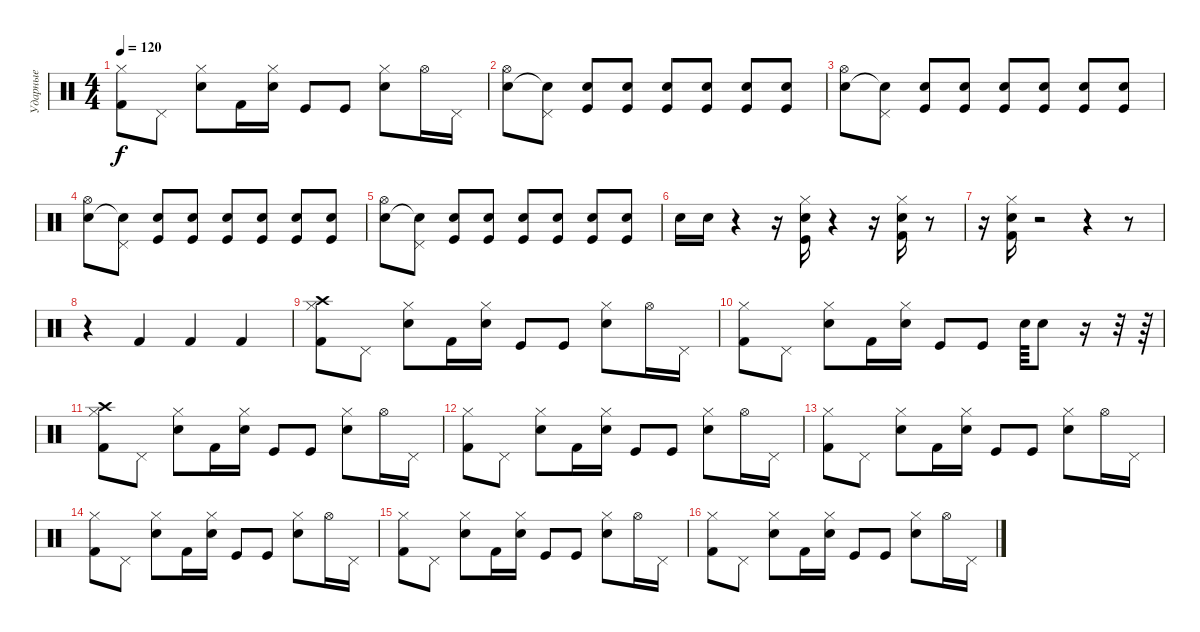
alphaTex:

\track ("Ударные" "Ударные") {instrument percussion}
\staff {score}
\articulation defaults
\ts (4 4)
\tempo 120
\clef neutral
\ks c
("Hi-Hat (closed)" "Kick (hit) 2").8{dy f} "Pedal Hi-Hat (hit)".8 ("Hi-Hat (closed)" "Electric Snare (hit)").8 "Kick (hit) 2".16 ("Hi-Hat (closed)" "Electric Snare (hit)").16 "Kick (hit)".8 "Kick (hit)".8 ("Hi-Hat (closed)" "Electric Snare (hit)").8 "Hi-Hat (open)".16 "Pedal Hi-Hat (hit)".16 |
("Hi-Hat (open)" "Electric Snare (hit)").8 ("Pedal Hi-Hat (hit)" "Snare (hit)"{t}).8 ("Electric Snare (hit)" "Kick (hit)").8 ("Electric Snare (hit)" "Kick (hit)").8 ("Electric Snare (hit)" "Kick (hit)").8 ("Electric Snare (hit)" "Kick (hit)").8 ("Electric Snare (hit)" "Kick (hit)").8 ("Electric Snare (hit)" "Kick (hit)").8 |
("Hi-Hat (open)" "Electric Snare (hit)").8 ("Pedal Hi-Hat (hit)" "Snare (hit)"{t}).8 ("Electric Snare (hit)" "Kick (hit)").8 ("Electric Snare (hit)" "Kick (hit)").8 ("Electric Snare (hit)" "Kick (hit)").8 ("Electric Snare (hit)" "Kick (hit)").8 ("Electric Snare (hit)" "Kick (hit)").8 ("Electric Snare (hit)" "Kick (hit)").8 |
("Hi-Hat (open)" "Electric Snare (hit)").8 ("Pedal Hi-Hat (hit)" "Snare (hit)"{t}).8 ("Electric Snare (hit)" "Kick (hit)").8 ("Electric Snare (hit)" "Kick (hit)").8 ("Electric Snare (hit)" "Kick (hit)").8 ("Electric Snare (hit)" "Kick (hit)").8 ("Electric Snare (hit)" "Kick (hit)").8 ("Electric Snare (hit)" "Kick (hit)").8 |
("Hi-Hat (open)" "Electric Snare (hit)").8 ("Pedal Hi-Hat (hit)" "Snare (hit)"{t}).8 ("Electric Snare (hit)" "Kick (hit)").8 ("Electric Snare (hit)" "Kick (hit)").8 ("Electric Snare (hit)" "Kick (hit)").8 ("Electric Snare (hit)" "Kick (hit)").8 ("Electric Snare (hit)" "Kick (hit)").8 ("Electric Snare (hit)" "Kick (hit)").8 |
"Electric Snare (hit)".16{volume 13} "Electric Snare (hit)".16 r.4 r.16 ("Hi-Hat (closed)" "Electric Snare (hit)" "Kick (hit)").16 r.4 r.16 ("Hi-Hat (closed)" "Electric Snare (hit)" "Kick (hit) 2").16 r.8 |
r.16 ("Hi-Hat (closed)" "Electric Snare (hit)" "Kick (hit) 2").16 r.2 r.4 r.8 |
r.4 "Kick (hit) 2".4 "Kick (hit) 2".4 "Kick (hit) 2".4 |
("Crash high (hit)" "Hi-Hat (closed)" "Kick (hit) 2").8 "Pedal Hi-Hat (hit)".8 ("Hi-Hat (closed)" "Electric Snare (hit)").8 "Kick (hit) 2".16 ("Hi-Hat (closed)" "Electric Snare (hit)").16 "Kick (hit)".8 "Kick (hit)".8 ("Hi-Hat (closed)" "Electric Snare (hit)").8 "Hi-Hat (open)".16 "Pedal Hi-Hat (hit)".16 |
("Hi-Hat (closed)" "Kick (hit) 2").8 "Pedal Hi-Hat (hit)".8 ("Hi-Hat (closed)" "Electric Snare (hit)").8 "Kick (hit) 2".16 ("Hi-Hat (closed)" "Electric Snare (hit)").16 "Kick (hit)".8 "Kick (hit)".8 "Electric Snare (hit)".64 "Electric Snare (hit)".8 r.16 r.32 r.64 |
("Crash high (hit)" "Hi-Hat (closed)" "Kick (hit) 2").8 "Pedal Hi-Hat (hit)".8 ("Hi-Hat (closed)" "Electric Snare (hit)").8 "Kick (hit) 2".16 ("Hi-Hat (closed)" "Electric Snare (hit)").16 "Kick (hit)".8 "Kick (hit)".8 ("Hi-Hat (closed)" "Electric Snare (hit)").8 "Hi-Hat (open)".16 "Pedal Hi-Hat (hit)".16 |
("Hi-Hat (closed)" "Kick (hit) 2").8 "Pedal Hi-Hat (hit)".8 ("Hi-Hat (closed)" "Electric Snare (hit)").8 "Kick (hit) 2".16 ("Hi-Hat (closed)" "Electric Snare (hit)").16 "Kick (hit)".8 "Kick (hit)".8 ("Hi-Hat (closed)" "Electric Snare (hit)").8 "Hi-Hat (open)".16 "Pedal Hi-Hat (hit)".16 |
("Hi-Hat (closed)" "Kick (hit) 2").8 "Pedal Hi-Hat (hit)".8 ("Hi-Hat (closed)" "Electric Snare (hit)").8 "Kick (hit) 2".16 ("Hi-Hat (closed)" "Electric Snare (hit)").16 "Kick (hit)".8 "Kick (hit)".8 ("Hi-Hat (closed)" "Electric Snare (hit)").8 "Hi-Hat (open)".16 "Pedal Hi-Hat (hit)".16 |
("Hi-Hat (closed)" "Kick (hit) 2").8 "Pedal Hi-Hat (hit)".8 ("Hi-Hat (closed)" "Electric Snare (hit)").8 "Kick (hit) 2".16 ("Hi-Hat (closed)" "Electric Snare (hit)").16 "Kick (hit)".8 "Kick (hit)".8 ("Hi-Hat (closed)" "Electric Snare (hit)").8 "Hi-Hat (open)".16 "Pedal Hi-Hat (hit)".16 |
("Hi-Hat (closed)" "Kick (hit) 2").8 "Pedal Hi-Hat (hit)".8 ("Hi-Hat (closed)" "Electric Snare (hit)").8 "Kick (hit) 2".16 ("Hi-Hat (closed)" "Electric Snare (hit)").16 "Kick (hit)".8 "Kick (hit)".8 ("Hi-Hat (closed)" "Electric Snare (hit)").8 "Hi-Hat (open)".16 "Pedal Hi-Hat (hit)".16 |
("Hi-Hat (closed)" "Kick (hit) 2").8 "Pedal Hi-Hat (hit)".8 ("Hi-Hat (closed)" "Electric Snare (hit)").8 "Kick (hit) 2".16 ("Hi-Hat (closed)" "Electric Snare (hit)").16 "Kick (hit)".8 "Kick (hit)".8 ("Hi-Hat (closed)" "Electric Snare (hit)").8 "Hi-Hat (open)".16 "Pedal Hi-Hat (hit)".16
